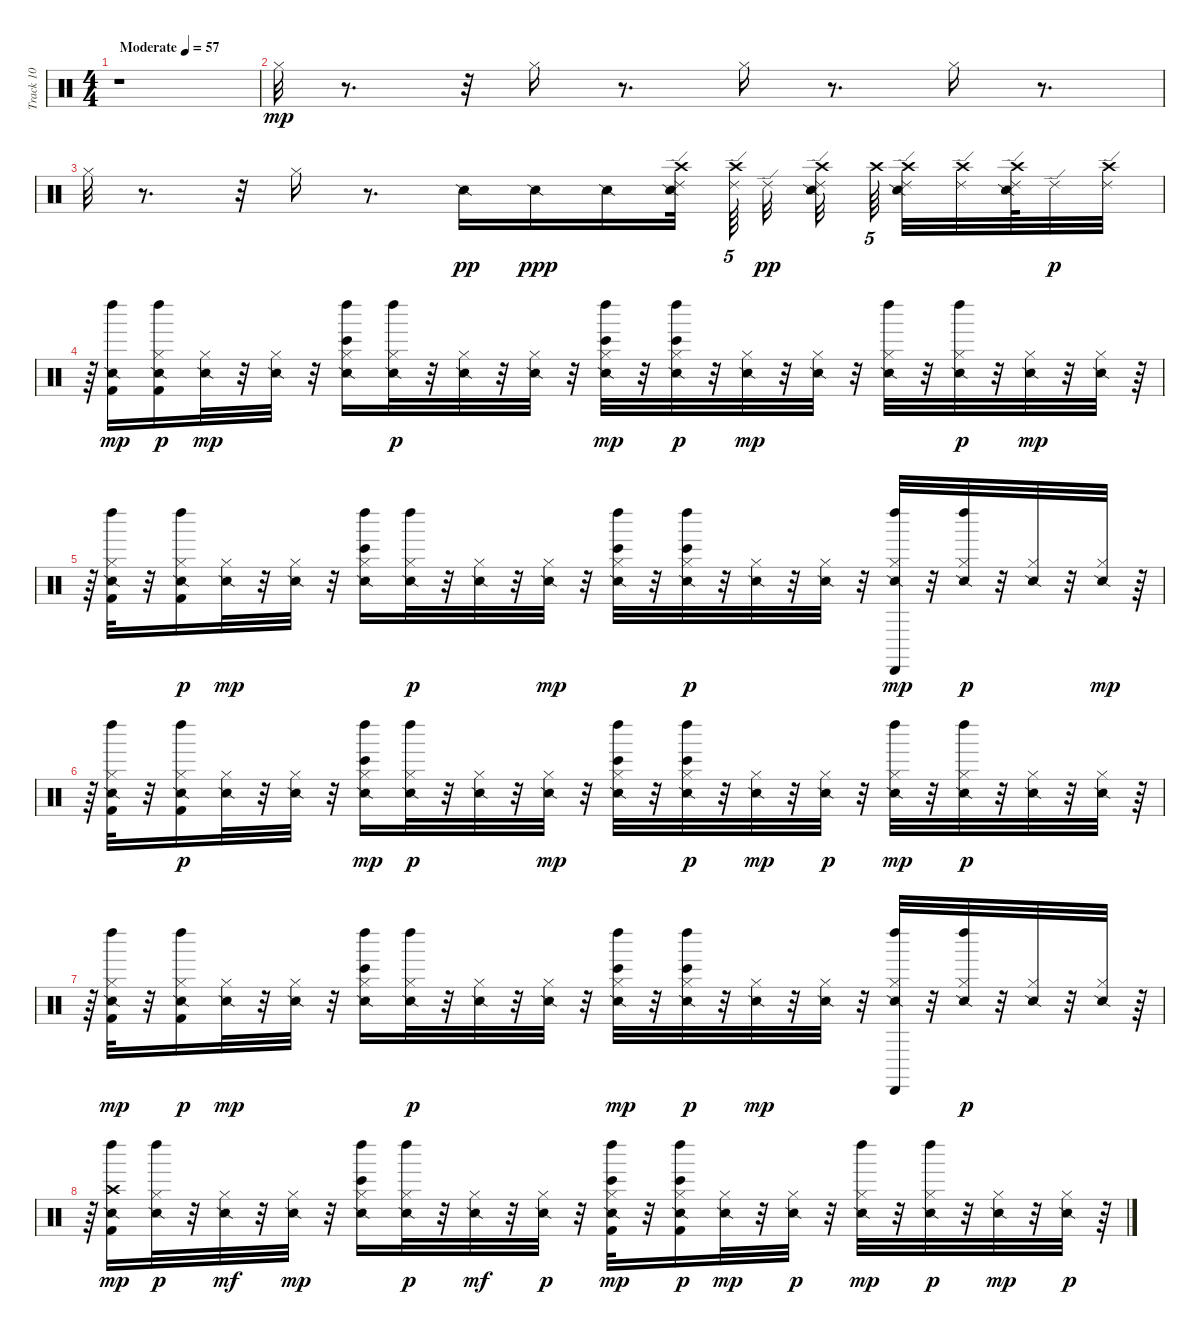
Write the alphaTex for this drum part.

\track ("Track 10" "Track 10") {instrument percussion}
\staff {score}
\articulation defaults
\ts (4 4)
\tempo (57 "Moderate")
\clef neutral
\ks c
r.1{dy mp} |
"Hi-Hat (closed)".32 r.8{d} r.32 "Hi-Hat (closed)".16 r.8{d} "Hi-Hat (closed)".16 r.8{d} "Hi-Hat (closed)".16 r.8{d} |
"Hi-Hat (closed)".32 r.8{d} r.32 "Hi-Hat (closed)".16 r.8{d} "Snare (side stick) 2".16{dy pp} "Snare (side stick) 2".16{dy ppp} "Snare (side stick) 2".16 ("Ride (edge) 2" "Snare (side stick) 2" "Crash high (hit)").32{beam splitsecondary} ("Ride (edge) 2" "Crash high (hit)").64{tu (5 4)} "Ride (edge) 2".32{dy pp} ("Snare (side stick) 2" "Crash high (hit)" "Ride (edge) 2").32{beam splitsecondary} "Crash high (hit)".64{tu (5 4) beam splitsecondary} ("Ride (edge) 2" "Crash high (hit)" "Snare (side stick) 2").32 ("Ride (edge) 2" "Crash high (hit)").32 ("Ride (edge) 2" "Crash high (hit)" "Snare (side stick) 2").64 "Ride (edge) 2".32{dy p} ("Crash high (hit)" "Ride (edge) 2").32 |
r.64 ("Snare (side stick) 2" "Kick (hit) 2" "Left Maraca (hit)").16{dy mp} ("Snare (side stick) 2" "Kick (hit) 2" "Hi-Hat (closed)" "Left Maraca (hit)").16{dy p} ("Snare (side stick) 2" "Hi-Hat (closed)").32{dy mp} r.32 ("Snare (side stick) 2" "Hi-Hat (closed)").32 r.32 ("Bongo High (hit)" "Snare (side stick) 2" "Hi-Hat (closed)" "Left Maraca (hit)").16 ("Snare (side stick) 2" "Hi-Hat (closed)" "Left Maraca (hit)").32{dy p} r.32 ("Snare (side stick) 2" "Hi-Hat (closed)").32 r.32 ("Snare (side stick) 2" "Hi-Hat (closed)").32 r.32 ("Bongo High (hit)" "Snare (side stick) 2" "Hi-Hat (closed)" "Left Maraca (hit)").32{dy mp} r.32 ("Bongo High (hit)" "Snare (side stick) 2" "Hi-Hat (closed)" "Left Maraca (hit)").32{dy p} r.32 ("Snare (side stick) 2" "Hi-Hat (closed)").32{dy mp} r.32 ("Snare (side stick) 2" "Hi-Hat (closed)").32 r.32 ("Snare (side stick) 2" "Hi-Hat (closed)" "Left Maraca (hit)").32 r.32 ("Snare (side stick) 2" "Hi-Hat (closed)" "Left Maraca (hit)").32{dy p} r.32 ("Snare (side stick) 2" "Hi-Hat (closed)").32{dy mp} r.32 ("Snare (side stick) 2" "Hi-Hat (closed)").32 r.64 |
r.64 ("Snare (side stick) 2" "Kick (hit) 2" "Hi-Hat (closed)" "Left Maraca (hit)").32 r.32 ("Snare (side stick) 2" "Kick (hit) 2" "Hi-Hat (closed)" "Left Maraca (hit)").16{dy p} ("Snare (side stick) 2" "Hi-Hat (closed)").32{dy mp} r.32 ("Snare (side stick) 2" "Hi-Hat (closed)").32 r.32 ("Bongo High (hit)" "Snare (side stick) 2" "Hi-Hat (closed)" "Left Maraca (hit)").16 ("Snare (side stick) 2" "Hi-Hat (closed)" "Left Maraca (hit)").32{dy p} r.32 ("Snare (side stick) 2" "Hi-Hat (closed)").32 r.32 ("Snare (side stick) 2" "Hi-Hat (closed)").32{dy mp} r.32 ("Bongo High (hit)" "Snare (side stick) 2" "Hi-Hat (closed)" "Left Maraca (hit)").32 r.32 ("Bongo High (hit)" "Snare (side stick) 2" "Hi-Hat (closed)" "Left Maraca (hit)").32{dy p} r.32 ("Snare (side stick) 2" "Hi-Hat (closed)").32 r.32 ("Snare (side stick) 2" "Hi-Hat (closed)").32 r.32 ("Snare (side stick) 2" "Hi-Hat (closed)" "Left Maraca (hit)" "Cabasa (hit)").32{dy mp} r.32 ("Snare (side stick) 2" "Hi-Hat (closed)" "Left Maraca (hit)").32{dy p} r.32 ("Snare (side stick) 2" "Hi-Hat (closed)").32 r.32 ("Snare (side stick) 2" "Hi-Hat (closed)").32{dy mp} r.64 |
r.64 ("Snare (side stick) 2" "Kick (hit) 2" "Hi-Hat (closed)" "Left Maraca (hit)").32 r.32 ("Snare (side stick) 2" "Kick (hit) 2" "Hi-Hat (closed)" "Left Maraca (hit)").16{dy p} ("Snare (side stick) 2" "Hi-Hat (closed)").32 r.32 ("Snare (side stick) 2" "Hi-Hat (closed)").32 r.32 ("Bongo High (hit)" "Snare (side stick) 2" "Hi-Hat (closed)" "Left Maraca (hit)").16{dy mp} ("Snare (side stick) 2" "Hi-Hat (closed)" "Left Maraca (hit)").32{dy p} r.32 ("Snare (side stick) 2" "Hi-Hat (closed)").32 r.32 ("Snare (side stick) 2" "Hi-Hat (closed)").32{dy mp} r.32 ("Bongo High (hit)" "Snare (side stick) 2" "Hi-Hat (closed)" "Left Maraca (hit)").32 r.32 ("Bongo High (hit)" "Snare (side stick) 2" "Hi-Hat (closed)" "Left Maraca (hit)").32{dy p} r.32 ("Snare (side stick) 2" "Hi-Hat (closed)").32{dy mp} r.32 ("Snare (side stick) 2" "Hi-Hat (closed)").32{dy p} r.32 ("Snare (side stick) 2" "Hi-Hat (closed)" "Left Maraca (hit)").32{dy mp} r.32 ("Snare (side stick) 2" "Hi-Hat (closed)" "Left Maraca (hit)").32{dy p} r.32 ("Snare (side stick) 2" "Hi-Hat (closed)").32 r.32 ("Snare (side stick) 2" "Hi-Hat (closed)").32 r.64 |
r.64 ("Snare (side stick) 2" "Kick (hit) 2" "Hi-Hat (closed)" "Left Maraca (hit)").32{dy mp} r.32 ("Snare (side stick) 2" "Kick (hit) 2" "Hi-Hat (closed)" "Left Maraca (hit)").16{dy p} ("Snare (side stick) 2" "Hi-Hat (closed)").32{dy mp} r.32 ("Snare (side stick) 2" "Hi-Hat (closed)").32 r.32 ("Bongo High (hit)" "Snare (side stick) 2" "Hi-Hat (closed)" "Left Maraca (hit)").16 ("Snare (side stick) 2" "Hi-Hat (closed)" "Left Maraca (hit)").32{dy p} r.32 ("Snare (side stick) 2" "Hi-Hat (closed)").32 r.32 ("Snare (side stick) 2" "Hi-Hat (closed)").32 r.32 ("Bongo High (hit)" "Snare (side stick) 2" "Hi-Hat (closed)" "Left Maraca (hit)").32{dy mp} r.32 ("Bongo High (hit)" "Snare (side stick) 2" "Hi-Hat (closed)" "Left Maraca (hit)").32{dy p} r.32 ("Snare (side stick) 2" "Hi-Hat (closed)").32{dy mp} r.32 ("Snare (side stick) 2" "Hi-Hat (closed)").32 r.32 ("Snare (side stick) 2" "Hi-Hat (closed)" "Left Maraca (hit)" "Cabasa (hit)").32 r.32 ("Snare (side stick) 2" "Hi-Hat (closed)" "Left Maraca (hit)").32{dy p} r.32 ("Snare (side stick) 2" "Hi-Hat (closed)").32 r.32 ("Snare (side stick) 2" "Hi-Hat (closed)").32 r.64 |
r.64 ("Snare (side stick) 2" "Kick (hit) 2" "Crash high (hit)" "Left Maraca (hit)").16{dy mp} ("Snare (side stick) 2" "Hi-Hat (closed)" "Left Maraca (hit)").32{dy p} r.32 ("Snare (side stick) 2" "Hi-Hat (closed)").32{dy mf} r.32 ("Snare (side stick) 2" "Hi-Hat (closed)").32{dy mp} r.32 ("Bongo High (hit)" "Snare (side stick) 2" "Hi-Hat (closed)" "Left Maraca (hit)").16 ("Snare (side stick) 2" "Hi-Hat (closed)" "Left Maraca (hit)").32{dy p} r.32 ("Snare (side stick) 2" "Hi-Hat (closed)").32{dy mf} r.32 ("Snare (side stick) 2" "Hi-Hat (closed)").32{dy p} r.32 ("Bongo High (hit)" "Snare (side stick) 2" "Kick (hit) 2" "Hi-Hat (closed)" "Left Maraca (hit)").32{dy mp} r.32 ("Bongo High (hit)" "Snare (side stick) 2" "Kick (hit) 2" "Hi-Hat (closed)" "Left Maraca (hit)").16{dy p} ("Snare (side stick) 2" "Hi-Hat (closed)").32{dy mp} r.32 ("Snare (side stick) 2" "Hi-Hat (closed)").32{dy p} r.32 ("Snare (side stick) 2" "Hi-Hat (closed)" "Left Maraca (hit)").32{dy mp} r.32 ("Snare (side stick) 2" "Hi-Hat (closed)" "Left Maraca (hit)").32{dy p} r.32 ("Snare (side stick) 2" "Hi-Hat (closed)").32{dy mp} r.32 ("Snare (side stick) 2" "Hi-Hat (closed)").32{dy p} r.64
